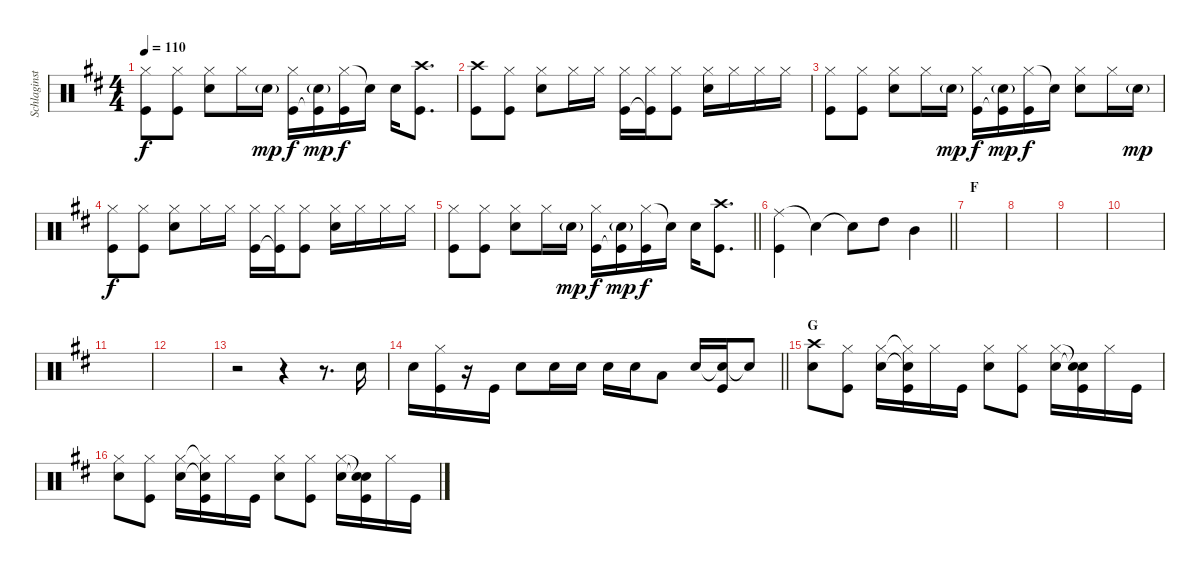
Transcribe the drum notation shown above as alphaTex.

\track ("Schlaginstrumente - Auswahl" "Schlaginst") {instrument percussion}
\staff {score}
\articulation defaults
\ts (4 4)
\tempo 110
\clef neutral
\ks d
("Hi-Hat (closed)" "Kick (hit)").8{dy f} ("Hi-Hat (closed)" "Kick (hit)").8 ("Hi-Hat (closed)" "Snare (hit) 2").8 "Hi-Hat (closed)".16 "Snare (hit) 2"{g}.16{dy mp} ("Hi-Hat (closed)" "Kick (hit)").16{dy f} ("Snare (hit) 2"{g} "Kick (hit)"{t}).16{dy mp} ("Hi-Hat (closed)" "Kick (hit)").16{dy f} "Snare (hit)"{t}.16 "Snare (hit) 2".16 ("Crash high (hit)" "Kick (hit)").8{d} |
("Crash high (hit)" "Kick (hit)").8 ("Hi-Hat (closed)" "Kick (hit)").8 ("Hi-Hat (closed)" "Snare (hit) 2").8 "Hi-Hat (closed)".16 "Hi-Hat (closed)".16 ("Hi-Hat (closed)" "Kick (hit)").16 ("Hi-Hat (closed)" "Kick (hit)"{t}).16 ("Hi-Hat (closed)" "Kick (hit)").8 ("Hi-Hat (closed)" "Snare (hit) 2").16 "Hi-Hat (closed)".16 "Hi-Hat (closed)".16 "Hi-Hat (closed)".16 |
("Hi-Hat (closed)" "Kick (hit)").8 ("Hi-Hat (closed)" "Kick (hit)").8 ("Hi-Hat (closed)" "Snare (hit) 2").8 "Hi-Hat (closed)".16 "Snare (hit) 2"{g}.16{dy mp} ("Hi-Hat (closed)" "Kick (hit)").16{dy f} ("Snare (hit) 2"{g} "Kick (hit)"{t}).16{dy mp} ("Hi-Hat (closed)" "Kick (hit)").16{dy f} "Snare (hit)"{t}.16 ("Hi-Hat (closed)" "Snare (hit) 2").8 "Hi-Hat (closed)".16 "Snare (hit) 2"{g}.16{dy mp} |
("Hi-Hat (closed)" "Kick (hit)").8{dy f} ("Hi-Hat (closed)" "Kick (hit)").8 ("Hi-Hat (closed)" "Snare (hit) 2").8 "Hi-Hat (closed)".16 "Hi-Hat (closed)".16 ("Hi-Hat (closed)" "Kick (hit)").16 ("Hi-Hat (closed)" "Kick (hit)"{t}).16 ("Hi-Hat (closed)" "Kick (hit)").8 ("Hi-Hat (closed)" "Snare (hit) 2").16 "Hi-Hat (closed)".16 "Hi-Hat (closed)".16 "Hi-Hat (closed)".16 |
\barLineRight lightlight
("Hi-Hat (closed)" "Kick (hit)").8 ("Hi-Hat (closed)" "Kick (hit)").8 ("Hi-Hat (closed)" "Snare (hit) 2").8 "Hi-Hat (closed)".16 "Snare (hit) 2"{g}.16{dy mp} ("Hi-Hat (closed)" "Kick (hit)").16{dy f} ("Snare (hit) 2"{g} "Kick (hit)"{t}).16{dy mp} ("Hi-Hat (closed)" "Kick (hit)").16{dy f} "Snare (hit)"{t}.16 "Snare (hit) 2".16 ("Crash high (hit)" "Kick (hit)").8{d} |
\barLineRight lightlight
("Ride (middle)" "Kick (hit)").4 "Snare (hit)"{t}.4 "Snare (hit)"{t}.8 "High Tom (hit)".8 "Mid Tom (hit)".4 |
\section ("" "F")
|
|
|
|
|
|
r.2 r.4 r.8{d} "Snare (hit) 2".16 |
\barLineRight lightlight "Snare (hit) 2".16
("Hi-Hat (closed)" "Kick (hit)").16 r.16 "Kick (hit)".16 "Snare (hit) 2".8 "Snare (hit) 2".16 "Snare (hit) 2".16 "Snare (hit) 2".16 "Snare (hit) 2".16 "Low Tom (hit)".8 "Snare (hit) 2".16 ("Snare (hit)"{t} "Kick (hit)").16 "Snare (hit)"{t}.8 |
\section ("" "G")
("Crash high (hit)" "Snare (hit) 2").8 ("Hi-Hat (closed)" "Kick (hit)").8 ("Hi-Hat (closed)" "Snare (hit) 2").16 ("Hi-Hat (closed)"{t} "Snare (hit)"{t} "Kick (hit)").16 "Hi-Hat (closed)".16 "Kick (hit)".16 ("Hi-Hat (closed)" "Snare (hit) 2").8 ("Hi-Hat (closed)" "Kick (hit)").8 ("Hi-Hat (closed)" "Snare (hit) 2").16 ("Snare (hit)"{t} "Snare (hit)"{t} "Kick (hit)").16 "Hi-Hat (closed)".16 "Kick (hit)".16 |
("Hi-Hat (closed)" "Snare (hit) 2").8 ("Hi-Hat (closed)" "Kick (hit)").8 ("Hi-Hat (closed)" "Snare (hit) 2").16 ("Hi-Hat (closed)"{t} "Snare (hit)"{t} "Kick (hit)").16 "Hi-Hat (closed)".16 "Kick (hit)".16 ("Hi-Hat (closed)" "Snare (hit) 2").8 ("Hi-Hat (closed)" "Kick (hit)").8 ("Hi-Hat (closed)" "Snare (hit) 2").16 ("Snare (hit)"{t} "Snare (hit)"{t} "Kick (hit)").16 "Hi-Hat (closed)".16 "Kick (hit)".16
